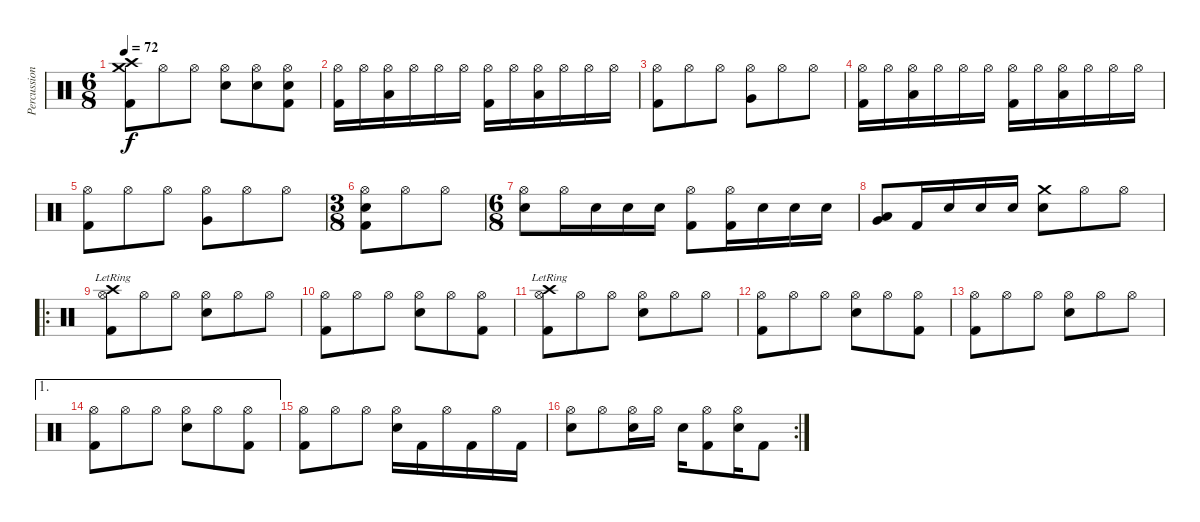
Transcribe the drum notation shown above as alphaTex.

\track ("Percussioni" "Percussion") {instrument percussion}
\staff {score}
\articulation defaults
\ts (6 8)
\tempo 72
\clef neutral
\ks c
("Crash high (hit)" "Crash medium (hit)" "Kick (hit) 2").8{dy f} "Hi-Hat (open)".8 "Hi-Hat (open)".8 ("Hi-Hat (open)" "Electric Snare (hit)").8 ("Hi-Hat (open)" "Electric Snare (hit)").8 ("Hi-Hat (open)" "Electric Snare (hit)" "Kick (hit) 2").8 |
("Hi-Hat (open)" "Kick (hit) 2").16 "Hi-Hat (open)".16 ("Hi-Hat (open)" "Low Tom (hit)").16 "Hi-Hat (open)".16 "Hi-Hat (open)".16 "Hi-Hat (open)".16 ("Hi-Hat (open)" "Kick (hit) 2").16 "Hi-Hat (open)".16 ("Hi-Hat (open)" "Low Tom (hit)").16 "Hi-Hat (open)".16 "Hi-Hat (open)".16 "Hi-Hat (open)".16 |
("Hi-Hat (open)" "Kick (hit) 2").8 "Hi-Hat (open)".8 "Hi-Hat (open)".8 ("Hi-Hat (open)" "Very Low Tom (hit)").8 "Hi-Hat (open)".8 "Hi-Hat (open)".8 |
("Hi-Hat (open)" "Kick (hit) 2").16 "Hi-Hat (open)".16 ("Hi-Hat (open)" "Low Tom (hit)").16 "Hi-Hat (open)".16 "Hi-Hat (open)".16 "Hi-Hat (open)".16 ("Hi-Hat (open)" "Kick (hit) 2").16 "Hi-Hat (open)".16 ("Hi-Hat (open)" "Low Tom (hit)").16 "Hi-Hat (open)".16 "Hi-Hat (open)".16 "Hi-Hat (open)".16 |
("Hi-Hat (open)" "Kick (hit) 2").8 "Hi-Hat (open)".8 "Hi-Hat (open)".8 ("Hi-Hat (open)" "Very Low Tom (hit)").8 "Hi-Hat (open)".8 "Hi-Hat (open)".8 |
\ts (3 8)
("Hi-Hat (open)" "Electric Snare (hit)" "Kick (hit) 2").8 "Hi-Hat (open)".8 "Hi-Hat (open)".8 |
\ts (6 8)
("Hi-Hat (open)" "Electric Snare (hit)").8 "Hi-Hat (open)".16 "Electric Snare (hit)".16 "Electric Snare (hit)".16 "Electric Snare (hit)".16 ("Hi-Hat (open)" "Kick (hit) 2").8 ("Hi-Hat (open)" "Kick (hit) 2").16 "Electric Snare (hit)".16 "Electric Snare (hit)".16 "Electric Snare (hit)".16 |
("Low Tom (hit)" "Very Low Tom (hit)").8 "Kick (hit) 2".16 "Electric Snare (hit)".16 "Electric Snare (hit)".16 "Electric Snare (hit)".16 ("Crash medium (hit)" "Electric Snare (hit)").8 "Hi-Hat (open)".8 "Hi-Hat (open)".8 |
\ro
("Hi-Hat (open)" "Crash high (hit)"{lr} "Kick (hit) 2").8 "Hi-Hat (open)".8 "Hi-Hat (open)".8 ("Hi-Hat (open)" "Electric Snare (hit)").8 "Hi-Hat (open)".8 "Hi-Hat (open)".8 |
("Hi-Hat (open)" "Kick (hit) 2").8 "Hi-Hat (open)".8 "Hi-Hat (open)".8 ("Hi-Hat (open)" "Electric Snare (hit)").8 "Hi-Hat (open)".8 ("Hi-Hat (open)" "Kick (hit) 2").8 |
("Hi-Hat (open)" "Crash high (hit)"{lr} "Kick (hit) 2").8 "Hi-Hat (open)".8 "Hi-Hat (open)".8 ("Hi-Hat (open)" "Electric Snare (hit)").8 "Hi-Hat (open)".8 "Hi-Hat (open)".8 |
("Hi-Hat (open)" "Kick (hit) 2").8 "Hi-Hat (open)".8 "Hi-Hat (open)".8 ("Hi-Hat (open)" "Electric Snare (hit)").8 "Hi-Hat (open)".8 ("Hi-Hat (open)" "Kick (hit) 2").8 |
("Hi-Hat (open)" "Kick (hit) 2").8 "Hi-Hat (open)".8 "Hi-Hat (open)".8 ("Hi-Hat (open)" "Electric Snare (hit)").8 "Hi-Hat (open)".8 "Hi-Hat (open)".8 |
\ae 1
("Hi-Hat (open)" "Kick (hit) 2").8 "Hi-Hat (open)".8 "Hi-Hat (open)".8 ("Hi-Hat (open)" "Electric Snare (hit)").8 "Hi-Hat (open)".8 ("Hi-Hat (open)" "Kick (hit) 2").8 |
("Hi-Hat (open)" "Kick (hit) 2").8 "Hi-Hat (open)".8 "Hi-Hat (open)".8 ("Hi-Hat (open)" "Electric Snare (hit)").16 "Kick (hit) 2".16 "Hi-Hat (open)".16 "Kick (hit) 2".16 "Hi-Hat (open)".16 "Kick (hit) 2".16 |
\rc 2
("Hi-Hat (open)" "Electric Snare (hit)").8 "Hi-Hat (open)".8 ("Hi-Hat (open)" "Electric Snare (hit)").16 "Hi-Hat (open)".16 "Electric Snare (hit)".16 ("Hi-Hat (open)" "Kick (hit) 2").8 ("Hi-Hat (open)" "Electric Snare (hit)").16 "Kick (hit) 2".8
